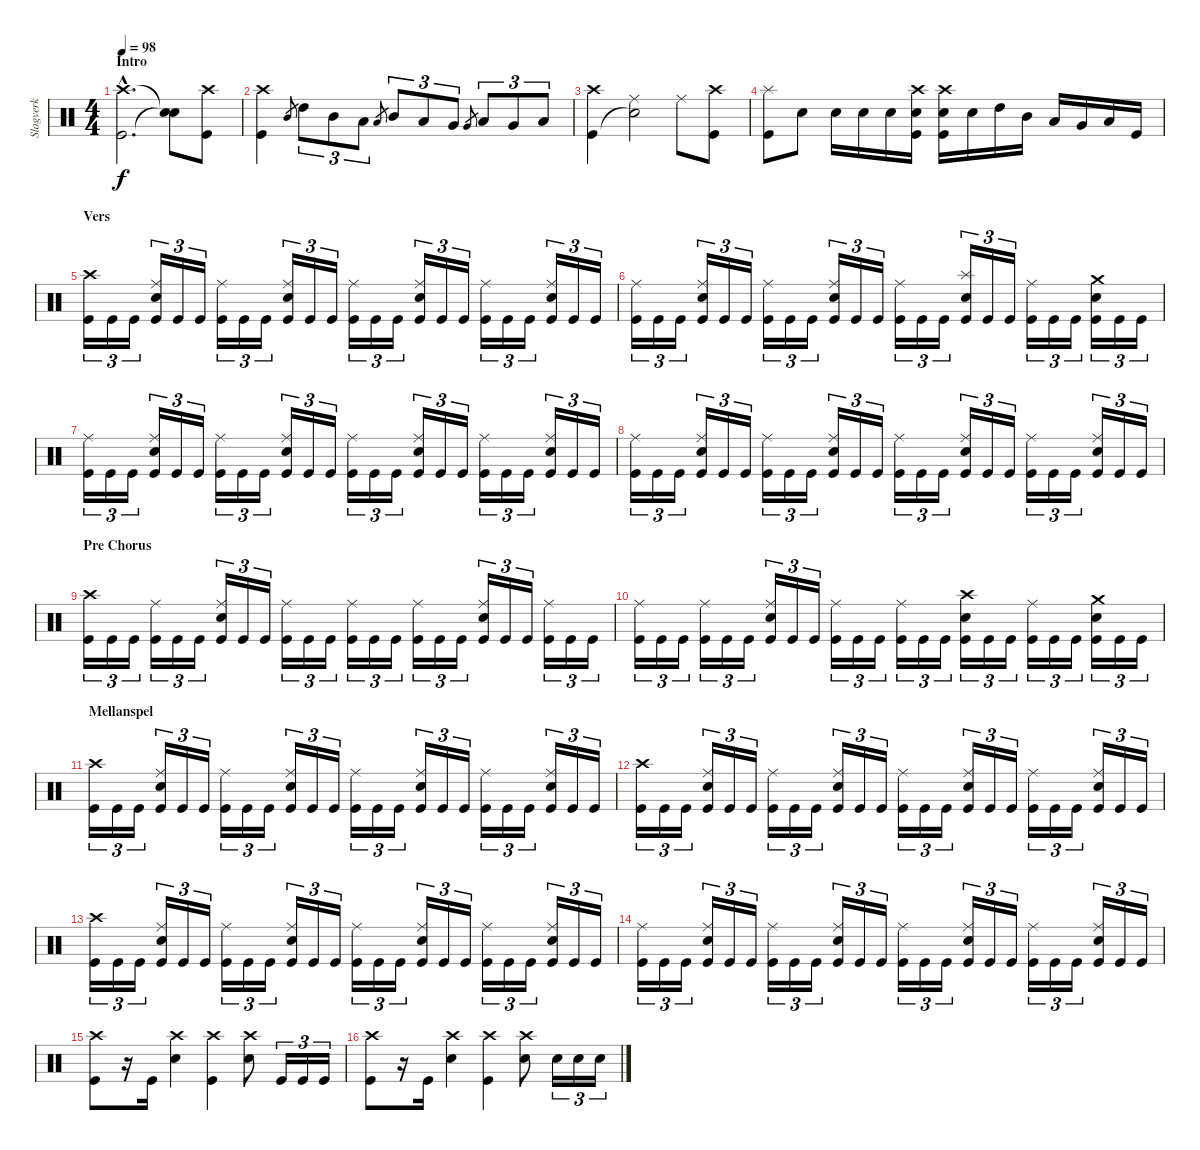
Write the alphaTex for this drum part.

\track ("Slagverk" "Slagverk") {instrument percussion}
\staff {score}
\articulation defaults
\ts (4 4)
\section ("" "Intro")
\tempo 98
\clef neutral
\ks c
("Crash high (hit)"{hac} "Kick (hit)"{hac}).2{d dy f} ("Snare (hit)"{t} "Snare (hit)"{t}).8 ("Crash high (hit)" "Kick (hit)").8 |
("Crash high (hit)" "Kick (hit)").4 "Mid Tom (hit)".8{gr} "High Tom (hit)".8{tu (3 2)} "Mid Tom (hit)".8{tu (3 2)} "Low Tom (hit)".8{tu (3 2)} "Low Tom (hit)"{sl}.8{gr} "Mid Tom (hit)".8{tu (3 2)} "Low Tom (hit)".8{tu (3 2)} "Very Low Tom (hit)".8{tu (3 2)} "Very Low Tom (hit)"{sl}.8{gr} "Low Tom (hit)".8{tu (3 2)} "Very Low Tom (hit)".8{tu (3 2)} "Low Floor Tom (hit)".8{tu (3 2)} |
("Crash high (hit)" "Kick (hit)").4 ("Ride (middle)" "Snare (hit)"{t}).2 "Ride (middle)".8 ("Crash high (hit)" "Kick (hit)").8 |
("Splash (hit)" "Kick (hit)").8 "Electric Snare (hit)".8 "Electric Snare (hit)".16 "Electric Snare (hit)".16 "Electric Snare (hit)".16 ("Crash high (hit)" "Electric Snare (hit)" "Kick (hit)").16 ("Crash high (hit)" "Electric Snare (hit)" "Kick (hit)").16 "Electric Snare (hit)".16 "High Tom (hit)".16 "Mid Tom (hit)".16 "Low Tom (hit)".16 "Very Low Tom (hit)".16 "Low Floor Tom (hit)".16 "Kick (hit)".16 |
\section ("" "Vers")
("Crash high (hit)" "Kick (hit)").16{tu (3 2)} "Kick (hit)".16{tu (3 2)} "Kick (hit)".16{tu (3 2)} ("Ride (middle)" "Electric Snare (hit)" "Kick (hit)").16{tu (3 2)} "Kick (hit)".16{tu (3 2)} "Kick (hit)".16{tu (3 2)} ("Ride (middle)" "Kick (hit)").16{tu (3 2)} "Kick (hit)".16{tu (3 2)} "Kick (hit)".16{tu (3 2)} ("Ride (middle)" "Electric Snare (hit)" "Kick (hit)").16{tu (3 2)} "Kick (hit)".16{tu (3 2)} "Kick (hit)".16{tu (3 2)} ("Ride (middle)" "Kick (hit)").16{tu (3 2)} "Kick (hit)".16{tu (3 2)} "Kick (hit)".16{tu (3 2)} ("Ride (middle)" "Electric Snare (hit)" "Kick (hit)").16{tu (3 2)} "Kick (hit)".16{tu (3 2)} "Kick (hit)".16{tu (3 2)} ("Ride (middle)" "Kick (hit)").16{tu (3 2)} "Kick (hit)".16{tu (3 2)} "Kick (hit)".16{tu (3 2)} ("Ride (middle)" "Electric Snare (hit)" "Kick (hit)").16{tu (3 2)} "Kick (hit)".16{tu (3 2)} "Kick (hit)".16{tu (3 2)} |
("Ride (middle)" "Kick (hit)").16{tu (3 2)} "Kick (hit)".16{tu (3 2)} "Kick (hit)".16{tu (3 2)} ("Ride (middle)" "Electric Snare (hit)" "Kick (hit)").16{tu (3 2)} "Kick (hit)".16{tu (3 2)} "Kick (hit)".16{tu (3 2)} ("Ride (middle)" "Kick (hit)").16{tu (3 2)} "Kick (hit)".16{tu (3 2)} "Kick (hit)".16{tu (3 2)} ("Ride (middle)" "Electric Snare (hit)" "Kick (hit)").16{tu (3 2)} "Kick (hit)".16{tu (3 2)} "Kick (hit)".16{tu (3 2)} ("Ride (middle)" "Kick (hit)").16{tu (3 2)} "Kick (hit)".16{tu (3 2)} "Kick (hit)".16{tu (3 2)} ("Splash (hit)" "Electric Snare (hit)" "Kick (hit)").16{tu (3 2)} "Kick (hit)".16{tu (3 2)} "Kick (hit)".16{tu (3 2)} ("Ride (middle)" "Kick (hit)").16{tu (3 2)} "Kick (hit)".16{tu (3 2)} "Kick (hit)".16{tu (3 2)} ("Crash medium (hit)" "Electric Snare (hit)" "Kick (hit)").16{tu (3 2)} "Kick (hit)".16{tu (3 2)} "Kick (hit)".16{tu (3 2)} |
("Ride (middle)" "Kick (hit)").16{tu (3 2)} "Kick (hit)".16{tu (3 2)} "Kick (hit)".16{tu (3 2)} ("Ride (middle)" "Electric Snare (hit)" "Kick (hit)").16{tu (3 2)} "Kick (hit)".16{tu (3 2)} "Kick (hit)".16{tu (3 2)} ("Ride (middle)" "Kick (hit)").16{tu (3 2)} "Kick (hit)".16{tu (3 2)} "Kick (hit)".16{tu (3 2)} ("Ride (middle)" "Electric Snare (hit)" "Kick (hit)").16{tu (3 2)} "Kick (hit)".16{tu (3 2)} "Kick (hit)".16{tu (3 2)} ("Ride (middle)" "Kick (hit)").16{tu (3 2)} "Kick (hit)".16{tu (3 2)} "Kick (hit)".16{tu (3 2)} ("Ride (middle)" "Electric Snare (hit)" "Kick (hit)").16{tu (3 2)} "Kick (hit)".16{tu (3 2)} "Kick (hit)".16{tu (3 2)} ("Ride (middle)" "Kick (hit)").16{tu (3 2)} "Kick (hit)".16{tu (3 2)} "Kick (hit)".16{tu (3 2)} ("Ride (middle)" "Electric Snare (hit)" "Kick (hit)").16{tu (3 2)} "Kick (hit)".16{tu (3 2)} "Kick (hit)".16{tu (3 2)} |
("Ride (middle)" "Kick (hit)").16{tu (3 2)} "Kick (hit)".16{tu (3 2)} "Kick (hit)".16{tu (3 2)} ("Ride (middle)" "Electric Snare (hit)" "Kick (hit)").16{tu (3 2)} "Kick (hit)".16{tu (3 2)} "Kick (hit)".16{tu (3 2)} ("Ride (middle)" "Kick (hit)").16{tu (3 2)} "Kick (hit)".16{tu (3 2)} "Kick (hit)".16{tu (3 2)} ("Ride (middle)" "Electric Snare (hit)" "Kick (hit)").16{tu (3 2)} "Kick (hit)".16{tu (3 2)} "Kick (hit)".16{tu (3 2)} ("Ride (middle)" "Kick (hit)").16{tu (3 2)} "Kick (hit)".16{tu (3 2)} "Kick (hit)".16{tu (3 2)} ("Ride (middle)" "Electric Snare (hit)" "Kick (hit)").16{tu (3 2)} "Kick (hit)".16{tu (3 2)} "Kick (hit)".16{tu (3 2)} ("Ride (middle)" "Kick (hit)").16{tu (3 2)} "Kick (hit)".16{tu (3 2)} "Kick (hit)".16{tu (3 2)} ("Ride (middle)" "Electric Snare (hit)" "Kick (hit)").16{tu (3 2)} "Kick (hit)".16{tu (3 2)} "Kick (hit)".16{tu (3 2)} |
\section ("" "Pre Chorus")
("Crash high (hit)" "Kick (hit)").16{tu (3 2)} "Kick (hit)".16{tu (3 2)} "Kick (hit)".16{tu (3 2)} ("Ride (middle)" "Kick (hit)").16{tu (3 2)} "Kick (hit)".16{tu (3 2)} "Kick (hit)".16{tu (3 2)} ("Ride (middle)" "Electric Snare (hit)" "Kick (hit)").16{tu (3 2)} "Kick (hit)".16{tu (3 2)} "Kick (hit)".16{tu (3 2)} ("Ride (middle)" "Kick (hit)").16{tu (3 2)} "Kick (hit)".16{tu (3 2)} "Kick (hit)".16{tu (3 2)} ("Ride (middle)" "Kick (hit)").16{tu (3 2)} "Kick (hit)".16{tu (3 2)} "Kick (hit)".16{tu (3 2)} ("Ride (middle)" "Kick (hit)").16{tu (3 2)} "Kick (hit)".16{tu (3 2)} "Kick (hit)".16{tu (3 2)} ("Ride (middle)" "Electric Snare (hit)" "Kick (hit)").16{tu (3 2)} "Kick (hit)".16{tu (3 2)} "Kick (hit)".16{tu (3 2)} ("Ride (middle)" "Kick (hit)").16{tu (3 2)} "Kick (hit)".16{tu (3 2)} "Kick (hit)".16{tu (3 2)} |
("Ride (middle)" "Kick (hit)").16{tu (3 2)} "Kick (hit)".16{tu (3 2)} "Kick (hit)".16{tu (3 2)} ("Ride (middle)" "Kick (hit)").16{tu (3 2)} "Kick (hit)".16{tu (3 2)} "Kick (hit)".16{tu (3 2)} ("Ride (middle)" "Electric Snare (hit)" "Kick (hit)").16{tu (3 2)} "Kick (hit)".16{tu (3 2)} "Kick (hit)".16{tu (3 2)} ("Ride (middle)" "Kick (hit)").16{tu (3 2)} "Kick (hit)".16{tu (3 2)} "Kick (hit)".16{tu (3 2)} ("Ride (middle)" "Kick (hit)").16{tu (3 2)} "Kick (hit)".16{tu (3 2)} "Kick (hit)".16{tu (3 2)} ("Crash high (hit)" "Electric Snare (hit)" "Kick (hit)").16{tu (3 2)} "Kick (hit)".16{tu (3 2)} "Kick (hit)".16{tu (3 2)} ("Ride (middle)" "Kick (hit)").16{tu (3 2)} "Kick (hit)".16{tu (3 2)} "Kick (hit)".16{tu (3 2)} ("Crash medium (hit)" "Electric Snare (hit)" "Kick (hit)").16{tu (3 2)} "Kick (hit)".16{tu (3 2)} "Kick (hit)".16{tu (3 2)} |
\section ("" "Mellanspel")
("Crash high (hit)" "Kick (hit)").16{tu (3 2)} "Kick (hit)".16{tu (3 2)} "Kick (hit)".16{tu (3 2)} ("Ride (middle)" "Electric Snare (hit)" "Kick (hit)").16{tu (3 2)} "Kick (hit)".16{tu (3 2)} "Kick (hit)".16{tu (3 2)} ("Ride (middle)" "Kick (hit)").16{tu (3 2)} "Kick (hit)".16{tu (3 2)} "Kick (hit)".16{tu (3 2)} ("Ride (middle)" "Electric Snare (hit)" "Kick (hit)").16{tu (3 2)} "Kick (hit)".16{tu (3 2)} "Kick (hit)".16{tu (3 2)} ("Ride (middle)" "Kick (hit)").16{tu (3 2)} "Kick (hit)".16{tu (3 2)} "Kick (hit)".16{tu (3 2)} ("Ride (middle)" "Electric Snare (hit)" "Kick (hit)").16{tu (3 2)} "Kick (hit)".16{tu (3 2)} "Kick (hit)".16{tu (3 2)} ("Ride (middle)" "Kick (hit)").16{tu (3 2)} "Kick (hit)".16{tu (3 2)} "Kick (hit)".16{tu (3 2)} ("Ride (middle)" "Electric Snare (hit)" "Kick (hit)").16{tu (3 2)} "Kick (hit)".16{tu (3 2)} "Kick (hit)".16{tu (3 2)} |
("Crash high (hit)" "Kick (hit)").16{tu (3 2)} "Kick (hit)".16{tu (3 2)} "Kick (hit)".16{tu (3 2)} ("Ride (middle)" "Electric Snare (hit)" "Kick (hit)").16{tu (3 2)} "Kick (hit)".16{tu (3 2)} "Kick (hit)".16{tu (3 2)} ("Ride (middle)" "Kick (hit)").16{tu (3 2)} "Kick (hit)".16{tu (3 2)} "Kick (hit)".16{tu (3 2)} ("Ride (middle)" "Electric Snare (hit)" "Kick (hit)").16{tu (3 2)} "Kick (hit)".16{tu (3 2)} "Kick (hit)".16{tu (3 2)} ("Ride (middle)" "Kick (hit)").16{tu (3 2)} "Kick (hit)".16{tu (3 2)} "Kick (hit)".16{tu (3 2)} ("Ride (middle)" "Electric Snare (hit)" "Kick (hit)").16{tu (3 2)} "Kick (hit)".16{tu (3 2)} "Kick (hit)".16{tu (3 2)} ("Ride (middle)" "Kick (hit)").16{tu (3 2)} "Kick (hit)".16{tu (3 2)} "Kick (hit)".16{tu (3 2)} ("Ride (middle)" "Electric Snare (hit)" "Kick (hit)").16{tu (3 2)} "Kick (hit)".16{tu (3 2)} "Kick (hit)".16{tu (3 2)} |
("Crash high (hit)" "Kick (hit)").16{tu (3 2)} "Kick (hit)".16{tu (3 2)} "Kick (hit)".16{tu (3 2)} ("Ride (middle)" "Electric Snare (hit)" "Kick (hit)").16{tu (3 2)} "Kick (hit)".16{tu (3 2)} "Kick (hit)".16{tu (3 2)} ("Ride (middle)" "Kick (hit)").16{tu (3 2)} "Kick (hit)".16{tu (3 2)} "Kick (hit)".16{tu (3 2)} ("Ride (middle)" "Electric Snare (hit)" "Kick (hit)").16{tu (3 2)} "Kick (hit)".16{tu (3 2)} "Kick (hit)".16{tu (3 2)} ("Ride (middle)" "Kick (hit)").16{tu (3 2)} "Kick (hit)".16{tu (3 2)} "Kick (hit)".16{tu (3 2)} ("Ride (middle)" "Electric Snare (hit)" "Kick (hit)").16{tu (3 2)} "Kick (hit)".16{tu (3 2)} "Kick (hit)".16{tu (3 2)} ("Ride (middle)" "Kick (hit)").16{tu (3 2)} "Kick (hit)".16{tu (3 2)} "Kick (hit)".16{tu (3 2)} ("Ride (middle)" "Electric Snare (hit)" "Kick (hit)").16{tu (3 2)} "Kick (hit)".16{tu (3 2)} "Kick (hit)".16{tu (3 2)} |
("Ride (middle)" "Kick (hit)").16{tu (3 2)} "Kick (hit)".16{tu (3 2)} "Kick (hit)".16{tu (3 2)} ("Ride (middle)" "Electric Snare (hit)" "Kick (hit)").16{tu (3 2)} "Kick (hit)".16{tu (3 2)} "Kick (hit)".16{tu (3 2)} ("Ride (middle)" "Kick (hit)").16{tu (3 2)} "Kick (hit)".16{tu (3 2)} "Kick (hit)".16{tu (3 2)} ("Ride (middle)" "Electric Snare (hit)" "Kick (hit)").16{tu (3 2)} "Kick (hit)".16{tu (3 2)} "Kick (hit)".16{tu (3 2)} ("Ride (middle)" "Kick (hit)").16{tu (3 2)} "Kick (hit)".16{tu (3 2)} "Kick (hit)".16{tu (3 2)} ("Ride (middle)" "Electric Snare (hit)" "Kick (hit)").16{tu (3 2)} "Kick (hit)".16{tu (3 2)} "Kick (hit)".16{tu (3 2)} ("Ride (middle)" "Kick (hit)").16{tu (3 2)} "Kick (hit)".16{tu (3 2)} "Kick (hit)".16{tu (3 2)} ("Ride (middle)" "Electric Snare (hit)" "Kick (hit)").16{tu (3 2)} "Kick (hit)".16{tu (3 2)} "Kick (hit)".16{tu (3 2)} |
("Crash high (hit)" "Kick (hit)").8 r.16 "Kick (hit)".16 ("Crash high (hit)" "Electric Snare (hit)").4 ("Crash high (hit)" "Kick (hit)").4 ("Crash high (hit)" "Electric Snare (hit)").8 "Kick (hit)".16{tu (3 2)} "Kick (hit)".16{tu (3 2)} "Kick (hit)".16{tu (3 2)} |
("Crash high (hit)" "Kick (hit)").8 r.16 "Kick (hit)".16 ("Crash high (hit)" "Electric Snare (hit)").4 ("Crash high (hit)" "Kick (hit)").4 ("Crash high (hit)" "Electric Snare (hit)").8 "Electric Snare (hit)".16{tu (3 2)} "Electric Snare (hit)".16{tu (3 2)} "Electric Snare (hit)".16{tu (3 2)}
